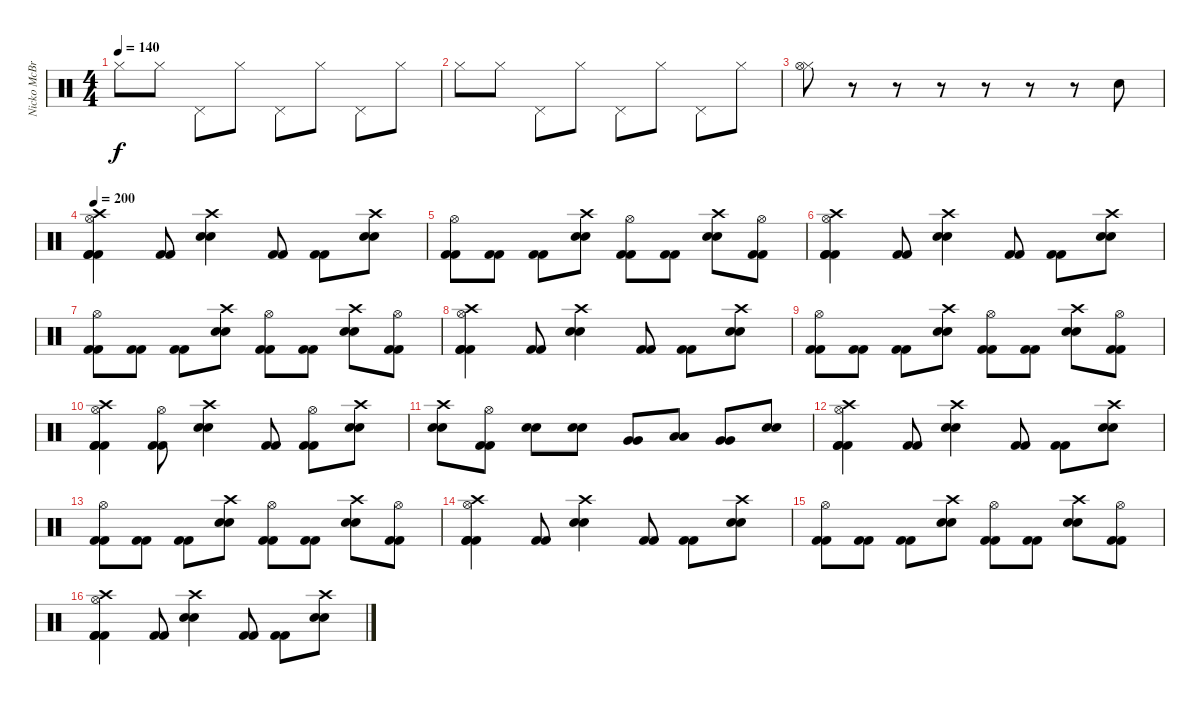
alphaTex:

\track ("Nicko McBrain" "Nicko McBr") {instrument percussion}
\staff {score}
\articulation defaults
\ts (4 4)
\tempo 140
\clef neutral
\ks c "Hi-Hat (closed)".8{dy f} "Hi-Hat (closed)".8 "Pedal Hi-Hat (hit)".8 "Hi-Hat (closed)".8 "Pedal Hi-Hat (hit)".8 "Hi-Hat (closed)".8 "Pedal Hi-Hat (hit)".8 "Hi-Hat (closed)".8
|
"Hi-Hat (closed)".8 "Hi-Hat (closed)".8 "Pedal Hi-Hat (hit)".8 "Hi-Hat (closed)".8 "Pedal Hi-Hat (hit)".8 "Hi-Hat (closed)".8 "Pedal Hi-Hat (hit)".8 "Hi-Hat (closed)".8 |
("Hi-Hat (closed)" "Hi-Hat (open)").8 r.8 r.8 r.8 r.8 r.8 r.8 "Snare (hit) 2".8 |
\tempo 200
("Crash high (hit)" "Hi-Hat (open)" "Kick (hit) 2" "Kick (hit) 2" "Kick (hit) 2").4 ("Kick (hit) 2" "Kick (hit) 2").8 ("Crash high (hit)" "Snare (hit) 2" "Snare (hit) 2").4 ("Kick (hit) 2" "Kick (hit) 2").8 ("Kick (hit) 2" "Kick (hit) 2").8 ("Crash high (hit)" "Snare (hit) 2" "Snare (hit) 2").8 |
("Hi-Hat (open)" "Kick (hit) 2" "Kick (hit) 2").8 ("Kick (hit) 2" "Kick (hit) 2").8 ("Kick (hit) 2" "Kick (hit) 2").8 ("Crash high (hit)" "Snare (hit) 2" "Snare (hit) 2").8 ("Hi-Hat (open)" "Kick (hit) 2" "Kick (hit) 2").8 ("Kick (hit) 2" "Kick (hit) 2").8 ("Crash high (hit)" "Snare (hit) 2" "Snare (hit) 2").8 ("Hi-Hat (open)" "Kick (hit) 2" "Kick (hit) 2").8 |
("Crash high (hit)" "Hi-Hat (open)" "Kick (hit) 2" "Kick (hit) 2" "Kick (hit) 2").4 ("Kick (hit) 2" "Kick (hit) 2").8 ("Crash high (hit)" "Snare (hit) 2" "Snare (hit) 2").4 ("Kick (hit) 2" "Kick (hit) 2").8 ("Kick (hit) 2" "Kick (hit) 2").8 ("Crash high (hit)" "Snare (hit) 2" "Snare (hit) 2").8 |
("Hi-Hat (open)" "Kick (hit) 2" "Kick (hit) 2").8 ("Kick (hit) 2" "Kick (hit) 2").8 ("Kick (hit) 2" "Kick (hit) 2").8 ("Crash high (hit)" "Snare (hit) 2" "Snare (hit) 2").8 ("Hi-Hat (open)" "Kick (hit) 2" "Kick (hit) 2").8 ("Kick (hit) 2" "Kick (hit) 2").8 ("Crash high (hit)" "Snare (hit) 2" "Snare (hit) 2").8 ("Hi-Hat (open)" "Kick (hit) 2" "Kick (hit) 2").8 |
("Crash high (hit)" "Hi-Hat (open)" "Kick (hit) 2" "Kick (hit) 2" "Kick (hit) 2").4 ("Kick (hit) 2" "Kick (hit) 2").8 ("Crash high (hit)" "Snare (hit) 2" "Snare (hit) 2").4 ("Kick (hit) 2" "Kick (hit) 2").8 ("Kick (hit) 2" "Kick (hit) 2").8 ("Crash high (hit)" "Snare (hit) 2" "Snare (hit) 2").8 |
("Hi-Hat (open)" "Kick (hit) 2" "Kick (hit) 2").8 ("Kick (hit) 2" "Kick (hit) 2").8 ("Kick (hit) 2" "Kick (hit) 2").8 ("Crash high (hit)" "Snare (hit) 2" "Snare (hit) 2").8 ("Hi-Hat (open)" "Kick (hit) 2" "Kick (hit) 2").8 ("Kick (hit) 2" "Kick (hit) 2").8 ("Crash high (hit)" "Snare (hit) 2" "Snare (hit) 2").8 ("Hi-Hat (open)" "Kick (hit) 2" "Kick (hit) 2").8 |
("Crash high (hit)" "Hi-Hat (open)" "Kick (hit) 2" "Kick (hit) 2" "Kick (hit) 2").4 ("Hi-Hat (open)" "Kick (hit) 2" "Kick (hit) 2").8 ("Crash high (hit)" "Snare (hit) 2" "Snare (hit) 2").4 ("Kick (hit) 2" "Kick (hit) 2").8 ("Hi-Hat (open)" "Kick (hit) 2" "Kick (hit) 2").8 ("Crash high (hit)" "Snare (hit) 2" "Snare (hit) 2").8 |
("Crash high (hit)" "Snare (hit) 2" "Snare (hit) 2").8 ("Hi-Hat (open)" "Kick (hit) 2" "Kick (hit) 2").8 ("Snare (hit) 2" "Snare (hit) 2").8 ("Snare (hit) 2" "Snare (hit) 2").8 ("Very Low Tom (hit)" "Very Low Tom (hit)").8 ("Low Floor Tom (hit)" "Low Floor Tom (hit)").8 ("Very Low Tom (hit)" "Very Low Tom (hit)").8 ("Snare (hit) 2" "Snare (hit) 2").8 |
("Crash high (hit)" "Hi-Hat (open)" "Kick (hit) 2" "Kick (hit) 2" "Kick (hit) 2").4 ("Kick (hit) 2" "Kick (hit) 2").8 ("Crash high (hit)" "Snare (hit) 2" "Snare (hit) 2").4 ("Kick (hit) 2" "Kick (hit) 2").8 ("Kick (hit) 2" "Kick (hit) 2").8 ("Crash high (hit)" "Snare (hit) 2" "Snare (hit) 2").8 |
("Hi-Hat (open)" "Kick (hit) 2" "Kick (hit) 2").8 ("Kick (hit) 2" "Kick (hit) 2").8 ("Kick (hit) 2" "Kick (hit) 2").8 ("Crash high (hit)" "Snare (hit) 2" "Snare (hit) 2").8 ("Hi-Hat (open)" "Kick (hit) 2" "Kick (hit) 2").8 ("Kick (hit) 2" "Kick (hit) 2").8 ("Crash high (hit)" "Snare (hit) 2" "Snare (hit) 2").8 ("Hi-Hat (open)" "Kick (hit) 2" "Kick (hit) 2").8 |
("Crash high (hit)" "Hi-Hat (open)" "Kick (hit) 2" "Kick (hit) 2" "Kick (hit) 2").4 ("Kick (hit) 2" "Kick (hit) 2").8 ("Crash high (hit)" "Snare (hit) 2" "Snare (hit) 2").4 ("Kick (hit) 2" "Kick (hit) 2").8 ("Kick (hit) 2" "Kick (hit) 2").8 ("Crash high (hit)" "Snare (hit) 2" "Snare (hit) 2").8 |
("Hi-Hat (open)" "Kick (hit) 2" "Kick (hit) 2").8 ("Kick (hit) 2" "Kick (hit) 2").8 ("Kick (hit) 2" "Kick (hit) 2").8 ("Crash high (hit)" "Snare (hit) 2" "Snare (hit) 2").8 ("Hi-Hat (open)" "Kick (hit) 2" "Kick (hit) 2").8 ("Kick (hit) 2" "Kick (hit) 2").8 ("Crash high (hit)" "Snare (hit) 2" "Snare (hit) 2").8 ("Hi-Hat (open)" "Kick (hit) 2" "Kick (hit) 2").8 |
("Crash high (hit)" "Hi-Hat (open)" "Kick (hit) 2" "Kick (hit) 2" "Kick (hit) 2").4 ("Kick (hit) 2" "Kick (hit) 2").8 ("Crash high (hit)" "Snare (hit) 2" "Snare (hit) 2").4 ("Kick (hit) 2" "Kick (hit) 2").8 ("Kick (hit) 2" "Kick (hit) 2").8 ("Crash high (hit)" "Snare (hit) 2" "Snare (hit) 2").8
